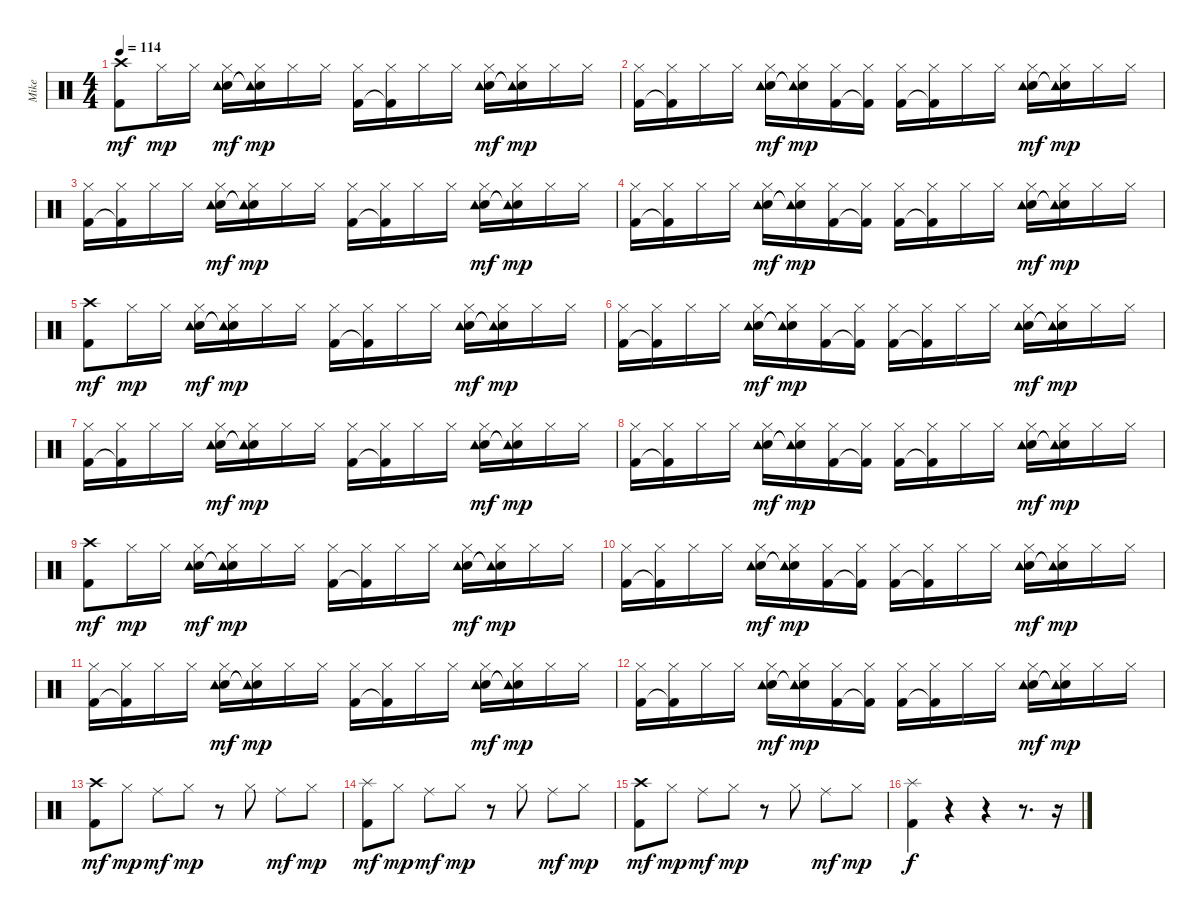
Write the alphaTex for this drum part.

\track ("Mike" "Mike") {instrument percussion}
\staff {score}
\articulation defaults
\ts (4 4)
\tempo 114
\clef neutral
\ks c
("Crash high (hit)" "Kick (hit) 2").8{dy mf} "Hi-Hat (closed)".16{dy mp} "Hi-Hat (closed)".16 ("Hi-Hat (closed)" "Electric Snare (hit)" "Tambourine (hit)").16{dy mf} ("Hi-Hat (closed)" "Electric Snare (hit)"{t} "Tambourine (hit)"{t}).16{dy mp} "Hi-Hat (closed)".16 "Hi-Hat (closed)".16 ("Hi-Hat (closed)" "Kick (hit) 2").16 ("Hi-Hat (closed)" "Kick (hit) 2"{t}).16 "Hi-Hat (closed)".16 "Hi-Hat (closed)".16 ("Hi-Hat (closed)" "Electric Snare (hit)" "Tambourine (hit)").16{dy mf} ("Hi-Hat (closed)" "Electric Snare (hit)"{t} "Tambourine (hit)"{t}).16{dy mp} "Hi-Hat (closed)".16 "Hi-Hat (closed)".16 |
("Hi-Hat (closed)" "Kick (hit) 2").16 ("Hi-Hat (closed)" "Kick (hit) 2"{t}).16 "Hi-Hat (closed)".16 "Hi-Hat (closed)".16 ("Hi-Hat (closed)" "Electric Snare (hit)" "Tambourine (hit)").16{dy mf} ("Hi-Hat (closed)" "Electric Snare (hit)"{t} "Tambourine (hit)"{t}).16{dy mp} ("Hi-Hat (closed)" "Kick (hit) 2").16 ("Hi-Hat (closed)" "Kick (hit) 2"{t}).16 ("Hi-Hat (closed)" "Kick (hit) 2").16 ("Hi-Hat (closed)" "Kick (hit) 2"{t}).16 "Hi-Hat (closed)".16 "Hi-Hat (closed)".16 ("Hi-Hat (closed)" "Electric Snare (hit)" "Tambourine (hit)").16{dy mf} ("Hi-Hat (closed)" "Electric Snare (hit)"{t} "Tambourine (hit)"{t}).16{dy mp} "Hi-Hat (closed)".16 "Hi-Hat (closed)".16 |
("Hi-Hat (closed)" "Kick (hit) 2").16 ("Hi-Hat (closed)" "Kick (hit) 2"{t}).16 "Hi-Hat (closed)".16 "Hi-Hat (closed)".16 ("Hi-Hat (closed)" "Electric Snare (hit)" "Tambourine (hit)").16{dy mf} ("Hi-Hat (closed)" "Electric Snare (hit)"{t} "Tambourine (hit)"{t}).16{dy mp} "Hi-Hat (closed)".16 "Hi-Hat (closed)".16 ("Hi-Hat (closed)" "Kick (hit) 2").16 ("Hi-Hat (closed)" "Kick (hit) 2"{t}).16 "Hi-Hat (closed)".16 "Hi-Hat (closed)".16 ("Hi-Hat (closed)" "Electric Snare (hit)" "Tambourine (hit)").16{dy mf} ("Hi-Hat (closed)" "Electric Snare (hit)"{t} "Tambourine (hit)"{t}).16{dy mp} "Hi-Hat (closed)".16 "Hi-Hat (closed)".16 |
("Hi-Hat (closed)" "Kick (hit) 2").16 ("Hi-Hat (closed)" "Kick (hit) 2"{t}).16 "Hi-Hat (closed)".16 "Hi-Hat (closed)".16 ("Hi-Hat (closed)" "Electric Snare (hit)" "Tambourine (hit)").16{dy mf} ("Hi-Hat (closed)" "Electric Snare (hit)"{t} "Tambourine (hit)"{t}).16{dy mp} ("Hi-Hat (closed)" "Kick (hit) 2").16 ("Hi-Hat (closed)" "Kick (hit) 2"{t}).16 ("Hi-Hat (closed)" "Kick (hit) 2").16 ("Hi-Hat (closed)" "Kick (hit) 2"{t}).16 "Hi-Hat (closed)".16 "Hi-Hat (closed)".16 ("Hi-Hat (closed)" "Electric Snare (hit)" "Tambourine (hit)").16{dy mf} ("Hi-Hat (closed)" "Electric Snare (hit)"{t} "Tambourine (hit)"{t}).16{dy mp} "Hi-Hat (closed)".16 "Hi-Hat (closed)".16 |
("Crash high (hit)" "Kick (hit) 2").8{dy mf} "Hi-Hat (closed)".16{dy mp} "Hi-Hat (closed)".16 ("Hi-Hat (closed)" "Electric Snare (hit)" "Tambourine (hit)").16{dy mf} ("Hi-Hat (closed)" "Electric Snare (hit)"{t} "Tambourine (hit)"{t}).16{dy mp} "Hi-Hat (closed)".16 "Hi-Hat (closed)".16 ("Hi-Hat (closed)" "Kick (hit) 2").16 ("Hi-Hat (closed)" "Kick (hit) 2"{t}).16 "Hi-Hat (closed)".16 "Hi-Hat (closed)".16 ("Hi-Hat (closed)" "Electric Snare (hit)" "Tambourine (hit)").16{dy mf} ("Hi-Hat (closed)" "Electric Snare (hit)"{t} "Tambourine (hit)"{t}).16{dy mp} "Hi-Hat (closed)".16 "Hi-Hat (closed)".16 |
("Hi-Hat (closed)" "Kick (hit) 2").16 ("Hi-Hat (closed)" "Kick (hit) 2"{t}).16 "Hi-Hat (closed)".16 "Hi-Hat (closed)".16 ("Hi-Hat (closed)" "Electric Snare (hit)" "Tambourine (hit)").16{dy mf} ("Hi-Hat (closed)" "Electric Snare (hit)"{t} "Tambourine (hit)"{t}).16{dy mp} ("Hi-Hat (closed)" "Kick (hit) 2").16 ("Hi-Hat (closed)" "Kick (hit) 2"{t}).16 ("Hi-Hat (closed)" "Kick (hit) 2").16 ("Hi-Hat (closed)" "Kick (hit) 2"{t}).16 "Hi-Hat (closed)".16 "Hi-Hat (closed)".16 ("Hi-Hat (closed)" "Electric Snare (hit)" "Tambourine (hit)").16{dy mf} ("Hi-Hat (closed)" "Electric Snare (hit)"{t} "Tambourine (hit)"{t}).16{dy mp} "Hi-Hat (closed)".16 "Hi-Hat (closed)".16 |
("Hi-Hat (closed)" "Kick (hit) 2").16 ("Hi-Hat (closed)" "Kick (hit) 2"{t}).16 "Hi-Hat (closed)".16 "Hi-Hat (closed)".16 ("Hi-Hat (closed)" "Electric Snare (hit)" "Tambourine (hit)").16{dy mf} ("Hi-Hat (closed)" "Electric Snare (hit)"{t} "Tambourine (hit)"{t}).16{dy mp} "Hi-Hat (closed)".16 "Hi-Hat (closed)".16 ("Hi-Hat (closed)" "Kick (hit) 2").16 ("Hi-Hat (closed)" "Kick (hit) 2"{t}).16 "Hi-Hat (closed)".16 "Hi-Hat (closed)".16 ("Hi-Hat (closed)" "Electric Snare (hit)" "Tambourine (hit)").16{dy mf} ("Hi-Hat (closed)" "Electric Snare (hit)"{t} "Tambourine (hit)"{t}).16{dy mp} "Hi-Hat (closed)".16 "Hi-Hat (closed)".16 |
("Hi-Hat (closed)" "Kick (hit) 2").16 ("Hi-Hat (closed)" "Kick (hit) 2"{t}).16 "Hi-Hat (closed)".16 "Hi-Hat (closed)".16 ("Hi-Hat (closed)" "Electric Snare (hit)" "Tambourine (hit)").16{dy mf} ("Hi-Hat (closed)" "Electric Snare (hit)"{t} "Tambourine (hit)"{t}).16{dy mp} ("Hi-Hat (closed)" "Kick (hit) 2").16 ("Hi-Hat (closed)" "Kick (hit) 2"{t}).16 ("Hi-Hat (closed)" "Kick (hit) 2").16 ("Hi-Hat (closed)" "Kick (hit) 2"{t}).16 "Hi-Hat (closed)".16 "Hi-Hat (closed)".16 ("Hi-Hat (closed)" "Electric Snare (hit)" "Tambourine (hit)").16{dy mf} ("Hi-Hat (closed)" "Electric Snare (hit)"{t} "Tambourine (hit)"{t}).16{dy mp} "Hi-Hat (closed)".16 "Hi-Hat (closed)".16 |
("Crash high (hit)" "Kick (hit) 2").8{dy mf} "Hi-Hat (closed)".16{dy mp} "Hi-Hat (closed)".16 ("Hi-Hat (closed)" "Electric Snare (hit)" "Tambourine (hit)").16{dy mf} ("Hi-Hat (closed)" "Electric Snare (hit)"{t} "Tambourine (hit)"{t}).16{dy mp} "Hi-Hat (closed)".16 "Hi-Hat (closed)".16 ("Hi-Hat (closed)" "Kick (hit) 2").16 ("Hi-Hat (closed)" "Kick (hit) 2"{t}).16 "Hi-Hat (closed)".16 "Hi-Hat (closed)".16 ("Hi-Hat (closed)" "Electric Snare (hit)" "Tambourine (hit)").16{dy mf} ("Hi-Hat (closed)" "Electric Snare (hit)"{t} "Tambourine (hit)"{t}).16{dy mp} "Hi-Hat (closed)".16 "Hi-Hat (closed)".16 |
("Hi-Hat (closed)" "Kick (hit) 2").16 ("Hi-Hat (closed)" "Kick (hit) 2"{t}).16 "Hi-Hat (closed)".16 "Hi-Hat (closed)".16 ("Hi-Hat (closed)" "Electric Snare (hit)" "Tambourine (hit)").16{dy mf} ("Hi-Hat (closed)" "Electric Snare (hit)"{t} "Tambourine (hit)"{t}).16{dy mp} ("Hi-Hat (closed)" "Kick (hit) 2").16 ("Hi-Hat (closed)" "Kick (hit) 2"{t}).16 ("Hi-Hat (closed)" "Kick (hit) 2").16 ("Hi-Hat (closed)" "Kick (hit) 2"{t}).16 "Hi-Hat (closed)".16 "Hi-Hat (closed)".16 ("Hi-Hat (closed)" "Electric Snare (hit)" "Tambourine (hit)").16{dy mf} ("Hi-Hat (closed)" "Electric Snare (hit)"{t} "Tambourine (hit)"{t}).16{dy mp} "Hi-Hat (closed)".16 "Hi-Hat (closed)".16 |
("Hi-Hat (closed)" "Kick (hit) 2").16 ("Hi-Hat (closed)" "Kick (hit) 2"{t}).16 "Hi-Hat (closed)".16 "Hi-Hat (closed)".16 ("Hi-Hat (closed)" "Electric Snare (hit)" "Tambourine (hit)").16{dy mf} ("Hi-Hat (closed)" "Electric Snare (hit)"{t} "Tambourine (hit)"{t}).16{dy mp} "Hi-Hat (closed)".16 "Hi-Hat (closed)".16 ("Hi-Hat (closed)" "Kick (hit) 2").16 ("Hi-Hat (closed)" "Kick (hit) 2"{t}).16 "Hi-Hat (closed)".16 "Hi-Hat (closed)".16 ("Hi-Hat (closed)" "Electric Snare (hit)" "Tambourine (hit)").16{dy mf} ("Hi-Hat (closed)" "Electric Snare (hit)"{t} "Tambourine (hit)"{t}).16{dy mp} "Hi-Hat (closed)".16 "Hi-Hat (closed)".16 |
("Hi-Hat (closed)" "Kick (hit) 2").16 ("Hi-Hat (closed)" "Kick (hit) 2"{t}).16 "Hi-Hat (closed)".16 "Hi-Hat (closed)".16 ("Hi-Hat (closed)" "Electric Snare (hit)" "Tambourine (hit)").16{dy mf} ("Hi-Hat (closed)" "Electric Snare (hit)"{t} "Tambourine (hit)"{t}).16{dy mp} ("Hi-Hat (closed)" "Kick (hit) 2").16 ("Hi-Hat (closed)" "Kick (hit) 2"{t}).16 ("Hi-Hat (closed)" "Kick (hit) 2").16 ("Hi-Hat (closed)" "Kick (hit) 2"{t}).16 "Hi-Hat (closed)".16 "Hi-Hat (closed)".16 ("Hi-Hat (closed)" "Electric Snare (hit)" "Tambourine (hit)").16{dy mf} ("Hi-Hat (closed)" "Electric Snare (hit)"{t} "Tambourine (hit)"{t}).16{dy mp} "Hi-Hat (closed)".16 "Hi-Hat (closed)".16 |
("Crash high (hit)" "Kick (hit) 2").8{dy mf} "Hi-Hat (closed)".8{dy mp} "Ride (middle)".8{dy mf} "Hi-Hat (closed)".8{dy mp} r.8 "Hi-Hat (closed)".8 "Ride (middle)".8{dy mf} "Hi-Hat (closed)".8{dy mp} |
("Splash (hit)" "Kick (hit) 2").8{dy mf} "Hi-Hat (closed)".8{dy mp} "Ride (middle)".8{dy mf} "Hi-Hat (closed)".8{dy mp} r.8 "Hi-Hat (closed)".8 "Ride (middle)".8{dy mf} "Hi-Hat (closed)".8{dy mp} |
("Crash high (hit)" "Kick (hit) 2").8{dy mf} "Hi-Hat (closed)".8{dy mp} "Ride (middle)".8{dy mf} "Hi-Hat (closed)".8{dy mp} r.8 "Hi-Hat (closed)".8 "Ride (middle)".8{dy mf} "Hi-Hat (closed)".8{dy mp} |
("Splash (hit)" "Kick (hit) 2").4{dy f} r.4 r.4 r.8{d} r.16
